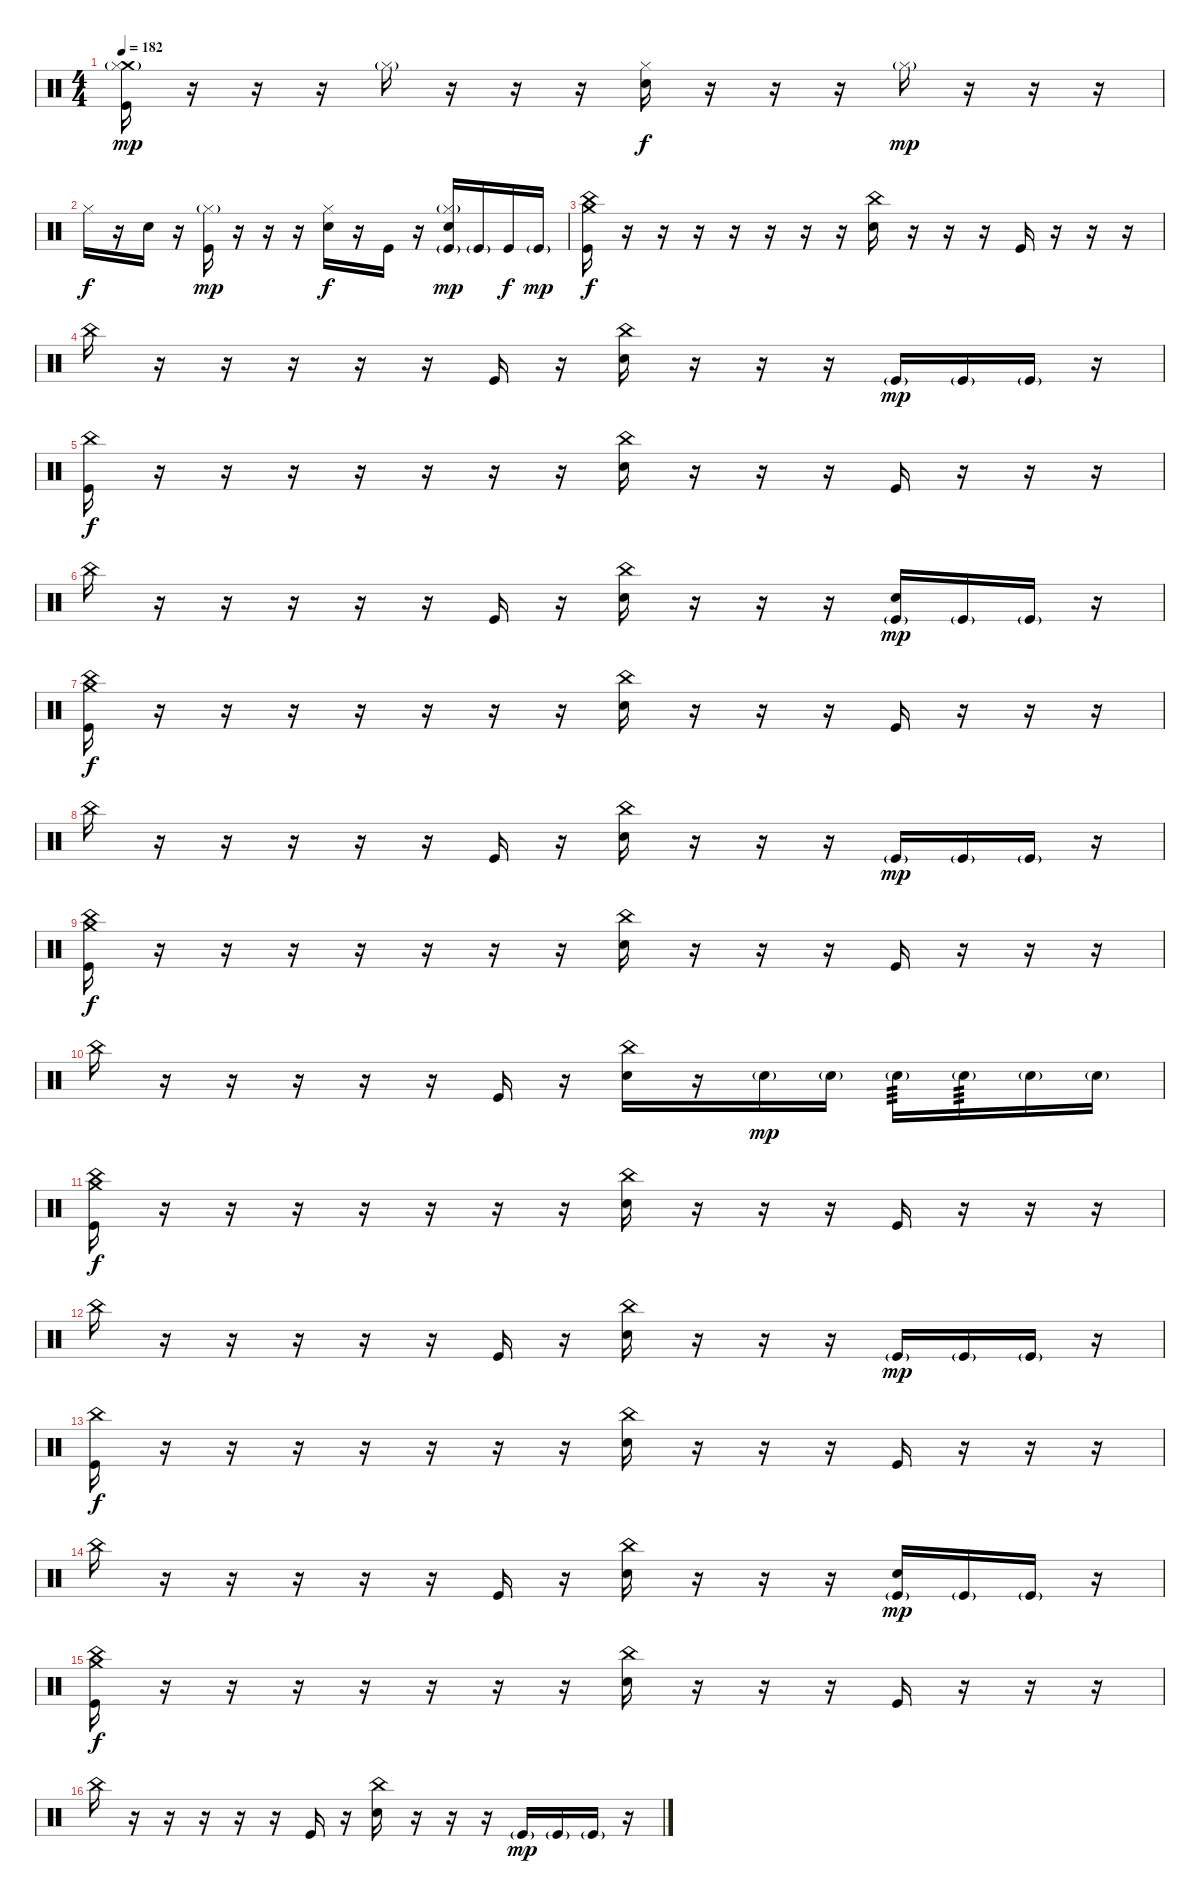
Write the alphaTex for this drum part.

\track "" {instrument percussion}
\staff {score}
\articulation defaults
\ts (4 4)
\tempo 182
\clef neutral
\ks c
("Crash medium (hit)"{g} "Kick (hit)" "Hi-Hat (closed)").16{dy mp} r.16 r.16 r.16 "Hi-Hat (closed)"{g}.16 r.16 r.16 r.16 ("Hi-Hat (closed)" "Electric Snare (hit)").16{dy f} r.16 r.16 r.16 "Hi-Hat (closed)"{g}.16{dy mp} r.16 r.16 r.16 |
"Hi-Hat (closed)".16{dy f} r.16 "Electric Snare (hit)".16 r.16 ("Kick (hit)" "Hi-Hat (closed)"{g}).16{dy mp} r.16 r.16 r.16 ("Hi-Hat (closed)" "Electric Snare (hit)").16{dy f} r.16 "Kick (hit)".16 r.16 ("Kick (hit)"{g} "Hi-Hat (closed)"{g} "Electric Snare (hit)").16{dy mp} "Kick (hit)"{g}.16 "Kick (hit)".16{dy f} "Kick (hit)"{g}.16{dy mp} |
("Crash medium (hit)" "Kick (hit)" "China (hit)").16{dy f} r.16 r.16 r.16 r.16 r.16 r.16 r.16 ("China (hit)" "Electric Snare (hit)").16 r.16 r.16 r.16 "Kick (hit)".16 r.16 r.16 r.16 |
"China (hit)".16 r.16 r.16 r.16 r.16 r.16 "Kick (hit)".16 r.16 ("China (hit)" "Electric Snare (hit)").16 r.16 r.16 r.16 "Kick (hit)"{g}.16{dy mp} "Kick (hit)"{g}.16 "Kick (hit)"{g}.16 r.16 |
("Kick (hit)" "China (hit)").16{dy f} r.16 r.16 r.16 r.16 r.16 r.16 r.16 ("China (hit)" "Electric Snare (hit)").16 r.16 r.16 r.16 "Kick (hit)".16 r.16 r.16 r.16 |
"China (hit)".16 r.16 r.16 r.16 r.16 r.16 "Kick (hit)".16 r.16 ("China (hit)" "Electric Snare (hit)").16 r.16 r.16 r.16 ("Kick (hit)"{g} "Electric Snare (hit)").16{dy mp} "Kick (hit)"{g}.16 "Kick (hit)"{g}.16 r.16 |
("Crash medium (hit)" "Kick (hit)" "China (hit)").16{dy f} r.16 r.16 r.16 r.16 r.16 r.16 r.16 ("China (hit)" "Electric Snare (hit)").16 r.16 r.16 r.16 "Kick (hit)".16 r.16 r.16 r.16 |
"China (hit)".16 r.16 r.16 r.16 r.16 r.16 "Kick (hit)".16 r.16 ("China (hit)" "Electric Snare (hit)").16 r.16 r.16 r.16 "Kick (hit)"{g}.16{dy mp} "Kick (hit)"{g}.16 "Kick (hit)"{g}.16 r.16 |
("Crash medium (hit)" "Kick (hit)" "China (hit)").16{dy f} r.16 r.16 r.16 r.16 r.16 r.16 r.16 ("China (hit)" "Electric Snare (hit)").16 r.16 r.16 r.16 "Kick (hit)".16 r.16 r.16 r.16 |
"China (hit)".16 r.16 r.16 r.16 r.16 r.16 "Kick (hit)".16 r.16 ("China (hit)" "Electric Snare (hit)").16 r.16 "Electric Snare (hit)"{g}.16{dy mp} "Electric Snare (hit)"{g}.16 "Electric Snare (hit)"{g}.16{tp 3} "Electric Snare (hit)"{g}.16{tp 3} "Electric Snare (hit)"{g}.16 "Electric Snare (hit)"{g}.16 |
("Crash medium (hit)" "Kick (hit)" "China (hit)").16{dy f} r.16 r.16 r.16 r.16 r.16 r.16 r.16 ("China (hit)" "Electric Snare (hit)").16 r.16 r.16 r.16 "Kick (hit)".16 r.16 r.16 r.16 |
"China (hit)".16 r.16 r.16 r.16 r.16 r.16 "Kick (hit)".16 r.16 ("China (hit)" "Electric Snare (hit)").16 r.16 r.16 r.16 "Kick (hit)"{g}.16{dy mp} "Kick (hit)"{g}.16 "Kick (hit)"{g}.16 r.16 |
("Kick (hit)" "China (hit)").16{dy f volume 7} r.16 r.16 r.16 r.16 r.16 r.16 r.16 ("China (hit)" "Electric Snare (hit)").16 r.16 r.16 r.16 "Kick (hit)".16 r.16 r.16 r.16 |
"China (hit)".16 r.16 r.16 r.16 r.16 r.16 "Kick (hit)".16 r.16 ("China (hit)" "Electric Snare (hit)").16 r.16 r.16 r.16 ("Kick (hit)"{g} "Electric Snare (hit)").16{dy mp} "Kick (hit)"{g}.16 "Kick (hit)"{g}.16 r.16 |
("Crash medium (hit)" "Kick (hit)" "China (hit)").16{dy f} r.16 r.16 r.16 r.16 r.16 r.16 r.16 ("China (hit)" "Electric Snare (hit)").16 r.16 r.16 r.16 "Kick (hit)".16 r.16 r.16 r.16 |
"China (hit)".16{volume 0} r.16 r.16 r.16 r.16 r.16 "Kick (hit)".16 r.16 ("China (hit)" "Electric Snare (hit)").16 r.16 r.16 r.16 "Kick (hit)"{g}.16{dy mp} "Kick (hit)"{g}.16 "Kick (hit)"{g}.16 r.16
